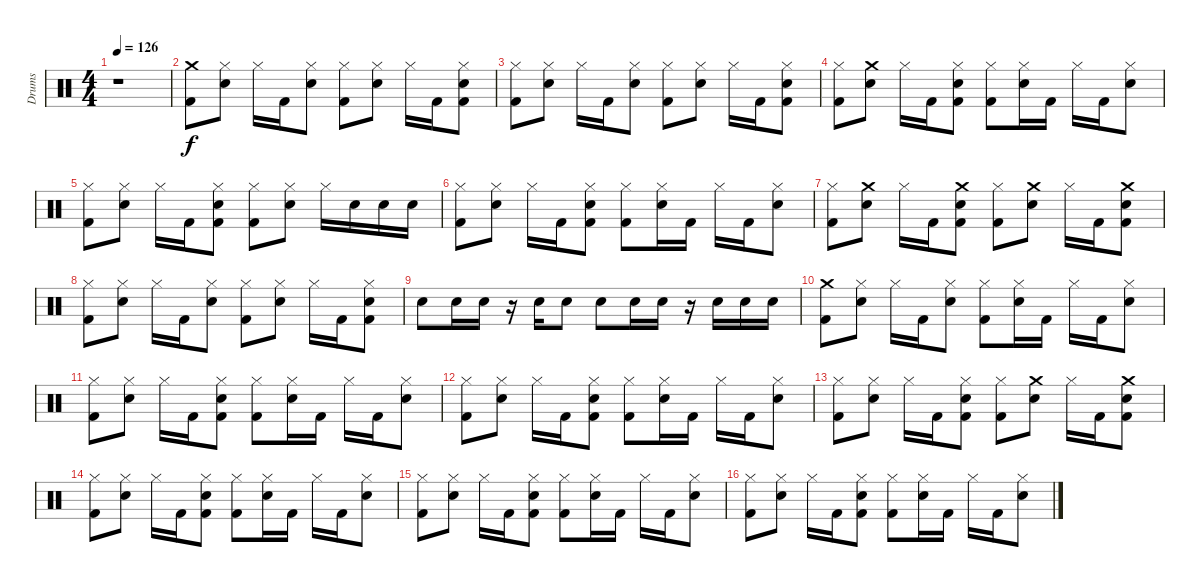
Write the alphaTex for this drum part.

\track ("Drums" "Drums") {instrument percussion}
\staff {score}
\articulation defaults
\ts (4 4)
\tempo 126
\clef neutral
\ks c
r.1{dy f} |
("Crash medium (hit)" "Kick (hit) 2").8 ("Snare (hit) 2" "Hi-Hat (closed)").8 "Hi-Hat (closed)".16 "Kick (hit) 2".16 ("Snare (hit) 2" "Hi-Hat (closed)").8 ("Hi-Hat (closed)" "Kick (hit) 2").8 ("Snare (hit) 2" "Hi-Hat (closed)").8 "Hi-Hat (closed)".16 "Kick (hit) 2".16 ("Snare (hit) 2" "Hi-Hat (closed)" "Kick (hit) 2").8 |
("Hi-Hat (closed)" "Kick (hit) 2").8 ("Snare (hit) 2" "Hi-Hat (closed)").8 "Hi-Hat (closed)".16 "Kick (hit) 2".16 ("Snare (hit) 2" "Hi-Hat (closed)").8 ("Hi-Hat (closed)" "Kick (hit) 2").8 ("Snare (hit) 2" "Hi-Hat (closed)").8 "Hi-Hat (closed)".16 "Kick (hit) 2".16 ("Snare (hit) 2" "Hi-Hat (closed)" "Kick (hit) 2").8 |
("Hi-Hat (closed)" "Kick (hit) 2").8 ("Snare (hit) 2" "Crash medium (hit)").8 "Hi-Hat (closed)".16 "Kick (hit) 2".16 ("Snare (hit) 2" "Hi-Hat (closed)" "Kick (hit) 2").8 ("Hi-Hat (closed)" "Kick (hit) 2").8 ("Snare (hit) 2" "Hi-Hat (closed)").16 "Kick (hit) 2".16 "Hi-Hat (closed)".16 "Kick (hit) 2".16 ("Snare (hit) 2" "Hi-Hat (closed)").8 |
("Hi-Hat (closed)" "Kick (hit) 2").8 ("Snare (hit) 2" "Hi-Hat (closed)").8 "Hi-Hat (closed)".16 "Kick (hit) 2".16 ("Snare (hit) 2" "Hi-Hat (closed)" "Kick (hit) 2").8 ("Hi-Hat (closed)" "Kick (hit) 2").8 ("Snare (hit) 2" "Hi-Hat (closed)").8 "Hi-Hat (closed)".16 "Snare (hit) 2".16 "Snare (hit) 2".16 "Snare (hit) 2".16 |
("Hi-Hat (closed)" "Kick (hit) 2").8 ("Hi-Hat (closed)" "Snare (hit) 2").8 "Hi-Hat (closed)".16 "Kick (hit) 2".16 ("Snare (hit) 2" "Hi-Hat (closed)" "Kick (hit) 2").8 ("Hi-Hat (closed)" "Kick (hit) 2").8 ("Snare (hit) 2" "Hi-Hat (closed)").16 "Kick (hit) 2".16 "Hi-Hat (closed)".16 "Kick (hit) 2".16 ("Snare (hit) 2" "Hi-Hat (closed)").8 |
("Kick (hit) 2" "Hi-Hat (closed)").8 ("Crash medium (hit)" "Snare (hit) 2").8 "Hi-Hat (closed)".16 "Kick (hit) 2".16 ("Kick (hit) 2" "Crash medium (hit)" "Snare (hit) 2").8 ("Kick (hit) 2" "Hi-Hat (closed)").8 ("Snare (hit) 2" "Crash medium (hit)").8 "Hi-Hat (closed)".16 "Kick (hit) 2".16 ("Crash medium (hit)" "Snare (hit) 2" "Kick (hit) 2").8 |
("Hi-Hat (closed)" "Kick (hit) 2").8 ("Snare (hit) 2" "Hi-Hat (closed)").8 "Hi-Hat (closed)".16 "Kick (hit) 2".16 ("Snare (hit) 2" "Hi-Hat (closed)").8 ("Hi-Hat (closed)" "Kick (hit) 2").8 ("Snare (hit) 2" "Hi-Hat (closed)").8 "Hi-Hat (closed)".16 "Kick (hit) 2".16 ("Snare (hit) 2" "Hi-Hat (closed)" "Kick (hit) 2").8 |
"Snare (hit) 2".8 "Snare (hit) 2".16 "Snare (hit) 2".16 r.16 "Snare (hit) 2".16 "Snare (hit) 2".8 "Snare (hit) 2".8 "Snare (hit) 2".16 "Snare (hit) 2".16 r.16 "Snare (hit) 2".16 "Snare (hit) 2".16 "Snare (hit) 2".16 |
("Kick (hit) 2" "Crash medium (hit)").8 ("Snare (hit) 2" "Hi-Hat (closed)").8 "Hi-Hat (closed)".16 "Kick (hit) 2".16 ("Snare (hit) 2" "Hi-Hat (closed)").8 ("Kick (hit) 2" "Hi-Hat (closed)").8 ("Snare (hit) 2" "Hi-Hat (closed)").16 "Kick (hit) 2".16 "Hi-Hat (closed)".16 "Kick (hit) 2".16 ("Snare (hit) 2" "Hi-Hat (closed)").8 |
("Hi-Hat (closed)" "Kick (hit) 2").8 ("Snare (hit) 2" "Hi-Hat (closed)").8 "Hi-Hat (closed)".16 "Kick (hit) 2".16 ("Kick (hit) 2" "Snare (hit) 2" "Hi-Hat (closed)").8 ("Kick (hit) 2" "Hi-Hat (closed)").8 ("Snare (hit) 2" "Hi-Hat (closed)").16 "Kick (hit) 2".16 "Hi-Hat (closed)".16 "Kick (hit) 2".16 ("Snare (hit) 2" "Hi-Hat (closed)").8 |
("Hi-Hat (closed)" "Kick (hit) 2").8 ("Snare (hit) 2" "Hi-Hat (closed)").8 "Hi-Hat (closed)".16 "Kick (hit) 2".16 ("Snare (hit) 2" "Hi-Hat (closed)" "Kick (hit) 2").8 ("Hi-Hat (closed)" "Kick (hit) 2").8 ("Snare (hit) 2" "Hi-Hat (closed)").16 "Kick (hit) 2".16 "Hi-Hat (closed)".16 "Kick (hit) 2".16 ("Snare (hit) 2" "Hi-Hat (closed)").8 |
("Hi-Hat (closed)" "Kick (hit) 2").8 ("Snare (hit) 2" "Hi-Hat (closed)").8 "Hi-Hat (closed)".16 "Kick (hit) 2".16 ("Kick (hit) 2" "Snare (hit) 2" "Hi-Hat (closed)").8 ("Hi-Hat (closed)" "Kick (hit) 2").8 ("Crash medium (hit)" "Snare (hit) 2").8 "Hi-Hat (closed)".16 "Kick (hit) 2".16 ("Kick (hit) 2" "Crash medium (hit)" "Snare (hit) 2").8 |
("Hi-Hat (closed)" "Kick (hit) 2").8 ("Snare (hit) 2" "Hi-Hat (closed)").8 "Hi-Hat (closed)".16 "Kick (hit) 2".16 ("Kick (hit) 2" "Snare (hit) 2" "Hi-Hat (closed)").8 ("Kick (hit) 2" "Hi-Hat (closed)").8 ("Snare (hit) 2" "Hi-Hat (closed)").16 "Kick (hit) 2".16 "Hi-Hat (closed)".16 "Kick (hit) 2".16 ("Snare (hit) 2" "Hi-Hat (closed)").8 |
("Hi-Hat (closed)" "Kick (hit) 2").8 ("Snare (hit) 2" "Hi-Hat (closed)").8 "Hi-Hat (closed)".16 "Kick (hit) 2".16 ("Kick (hit) 2" "Snare (hit) 2" "Hi-Hat (closed)").8 ("Kick (hit) 2" "Hi-Hat (closed)").8 ("Snare (hit) 2" "Hi-Hat (closed)").16 "Kick (hit) 2".16 "Hi-Hat (closed)".16 "Kick (hit) 2".16 ("Snare (hit) 2" "Hi-Hat (closed)").8 |
("Hi-Hat (closed)" "Kick (hit) 2").8 ("Snare (hit) 2" "Hi-Hat (closed)").8 "Hi-Hat (closed)".16 "Kick (hit) 2".16 ("Kick (hit) 2" "Snare (hit) 2" "Hi-Hat (closed)").8 ("Kick (hit) 2" "Hi-Hat (closed)").8 ("Snare (hit) 2" "Hi-Hat (closed)").16 "Kick (hit) 2".16 "Hi-Hat (closed)".16 "Kick (hit) 2".16 ("Snare (hit) 2" "Hi-Hat (closed)").8
